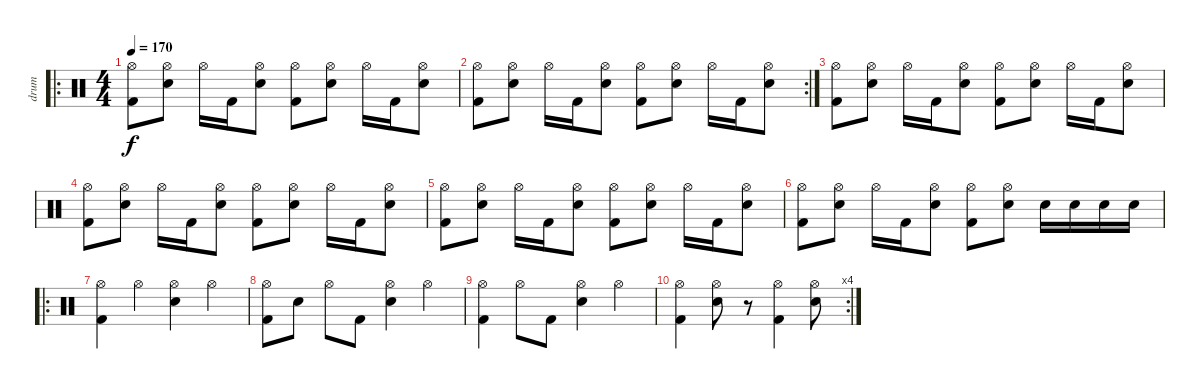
\track ("drum" "drum") {instrument percussion}
\staff {score}
\articulation defaults
\ro
\ts (4 4)
\tempo 170
\clef neutral
\ks c
("Hi-Hat (open)" "Kick (hit) 2").8{dy f} ("Hi-Hat (open)" "Snare (hit) 2").8 "Hi-Hat (open)".16 "Kick (hit) 2".16 ("Hi-Hat (open)" "Snare (hit) 2").8 ("Hi-Hat (open)" "Kick (hit) 2").8 ("Hi-Hat (open)" "Snare (hit) 2").8 "Hi-Hat (open)".16 "Kick (hit) 2".16 ("Hi-Hat (open)" "Snare (hit) 2").8 |
\rc 2
("Hi-Hat (open)" "Kick (hit) 2").8 ("Hi-Hat (open)" "Snare (hit) 2").8 "Hi-Hat (open)".16 "Kick (hit) 2".16 ("Hi-Hat (open)" "Snare (hit) 2").8 ("Hi-Hat (open)" "Kick (hit) 2").8 ("Hi-Hat (open)" "Snare (hit) 2").8 "Hi-Hat (open)".16 "Kick (hit) 2".16 ("Hi-Hat (open)" "Snare (hit) 2").8 |
("Hi-Hat (open)" "Kick (hit) 2").8 ("Hi-Hat (open)" "Snare (hit) 2").8 "Hi-Hat (open)".16 "Kick (hit) 2".16 ("Hi-Hat (open)" "Snare (hit) 2").8 ("Hi-Hat (open)" "Kick (hit) 2").8 ("Hi-Hat (open)" "Snare (hit) 2").8 "Hi-Hat (open)".16 "Kick (hit) 2".16 ("Hi-Hat (open)" "Snare (hit) 2").8 |
("Hi-Hat (open)" "Kick (hit) 2").8 ("Hi-Hat (open)" "Snare (hit) 2").8 "Hi-Hat (open)".16 "Kick (hit) 2".16 ("Hi-Hat (open)" "Snare (hit) 2").8 ("Hi-Hat (open)" "Kick (hit) 2").8 ("Hi-Hat (open)" "Snare (hit) 2").8 "Hi-Hat (open)".16 "Kick (hit) 2".16 ("Hi-Hat (open)" "Snare (hit) 2").8 |
("Hi-Hat (open)" "Kick (hit) 2").8 ("Hi-Hat (open)" "Snare (hit) 2").8 "Hi-Hat (open)".16 "Kick (hit) 2".16 ("Hi-Hat (open)" "Snare (hit) 2").8 ("Hi-Hat (open)" "Kick (hit) 2").8 ("Hi-Hat (open)" "Snare (hit) 2").8 "Hi-Hat (open)".16 "Kick (hit) 2".16 ("Hi-Hat (open)" "Snare (hit) 2").8 |
("Hi-Hat (open)" "Kick (hit) 2").8 ("Hi-Hat (open)" "Snare (hit) 2").8 "Hi-Hat (open)".16 "Kick (hit) 2".16 ("Hi-Hat (open)" "Snare (hit) 2").8 ("Hi-Hat (open)" "Kick (hit) 2").8 ("Hi-Hat (open)" "Snare (hit) 2").8 "Snare (hit) 2".16 "Snare (hit) 2".16 "Snare (hit) 2".16 "Snare (hit) 2".16 |
\ro
("Kick (hit) 2" "Hi-Hat (open)").4 "Hi-Hat (open)".4 ("Hi-Hat (open)" "Snare (hit) 2").4 "Hi-Hat (open)".4 |
("Kick (hit) 2" "Hi-Hat (open)").8 "Snare (hit) 2".8 "Hi-Hat (open)".8 "Kick (hit) 2".8 ("Hi-Hat (open)" "Snare (hit) 2").4 "Hi-Hat (open)".4 |
("Kick (hit) 2" "Hi-Hat (open)").4 "Hi-Hat (open)".8 "Kick (hit) 2".8 ("Hi-Hat (open)" "Snare (hit) 2").4 "Hi-Hat (open)".4 |
\rc 4
("Kick (hit) 2" "Hi-Hat (open)").4 ("Hi-Hat (open)" "Snare (hit) 2").8 r.8 ("Kick (hit) 2" "Hi-Hat (open)").4 ("Hi-Hat (open)" "Snare (hit) 2").8
